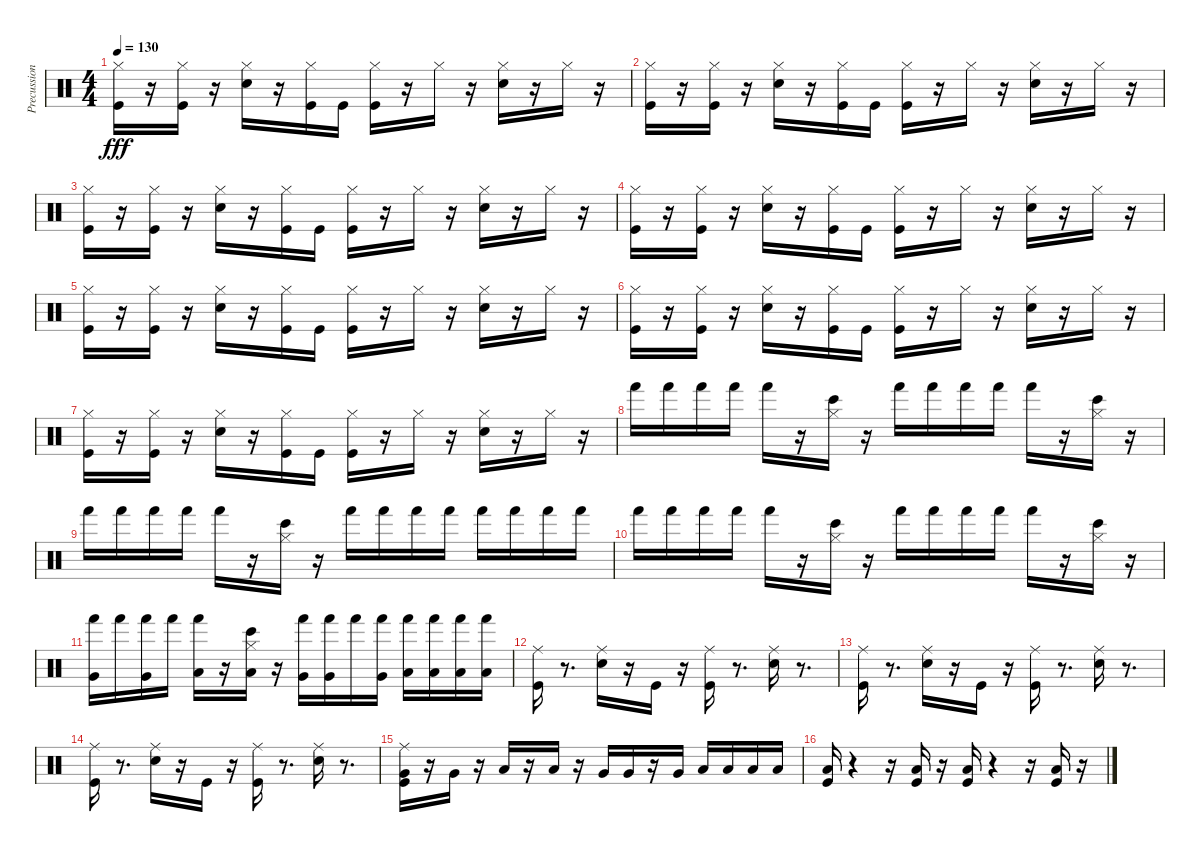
\track ("Precussion" "Precussion") {instrument percussion}
\staff {score}
\articulation defaults
\ts (4 4)
\tempo 130
\clef neutral
\ks c
("Kick (hit)" "Hi-Hat (closed)").16{dy fff} r.16 ("Kick (hit)" "Hi-Hat (closed)").16 r.16 ("Snare (hit) 2" "Hi-Hat (closed)").16 r.16 ("Kick (hit)" "Hi-Hat (closed)").16 "Kick (hit)".16 ("Kick (hit)" "Hi-Hat (closed)").16 r.16 "Hi-Hat (closed)".16 r.16 ("Snare (hit) 2" "Hi-Hat (closed)").16 r.16 "Hi-Hat (closed)".16 r.16 |
("Kick (hit)" "Hi-Hat (closed)").16 r.16 ("Kick (hit)" "Hi-Hat (closed)").16 r.16 ("Snare (hit) 2" "Hi-Hat (closed)").16 r.16 ("Kick (hit)" "Hi-Hat (closed)").16 "Kick (hit)".16 ("Kick (hit)" "Hi-Hat (closed)").16 r.16 "Hi-Hat (closed)".16 r.16 ("Snare (hit) 2" "Hi-Hat (closed)").16 r.16 "Hi-Hat (closed)".16 r.16 |
("Kick (hit)" "Hi-Hat (closed)").16 r.16 ("Kick (hit)" "Hi-Hat (closed)").16 r.16 ("Snare (hit) 2" "Hi-Hat (closed)").16 r.16 ("Kick (hit)" "Hi-Hat (closed)").16 "Kick (hit)".16 ("Kick (hit)" "Hi-Hat (closed)").16 r.16 "Hi-Hat (closed)".16 r.16 ("Snare (hit) 2" "Hi-Hat (closed)").16 r.16 "Hi-Hat (closed)".16 r.16 |
("Kick (hit)" "Hi-Hat (closed)").16 r.16 ("Kick (hit)" "Hi-Hat (closed)").16 r.16 ("Snare (hit) 2" "Hi-Hat (closed)").16 r.16 ("Kick (hit)" "Hi-Hat (closed)").16 "Kick (hit)".16 ("Kick (hit)" "Hi-Hat (closed)").16 r.16 "Hi-Hat (closed)".16 r.16 ("Snare (hit) 2" "Hi-Hat (closed)").16 r.16 "Hi-Hat (closed)".16 r.16 |
("Kick (hit)" "Hi-Hat (closed)").16 r.16 ("Kick (hit)" "Hi-Hat (closed)").16 r.16 ("Snare (hit) 2" "Hi-Hat (closed)").16 r.16 ("Kick (hit)" "Hi-Hat (closed)").16 "Kick (hit)".16 ("Kick (hit)" "Hi-Hat (closed)").16 r.16 "Hi-Hat (closed)".16 r.16 ("Snare (hit) 2" "Hi-Hat (closed)").16 r.16 "Hi-Hat (closed)".16 r.16 |
("Kick (hit)" "Hi-Hat (closed)").16 r.16 ("Kick (hit)" "Hi-Hat (closed)").16 r.16 ("Snare (hit) 2" "Hi-Hat (closed)").16 r.16 ("Kick (hit)" "Hi-Hat (closed)").16 "Kick (hit)".16 ("Kick (hit)" "Hi-Hat (closed)").16 r.16 "Hi-Hat (closed)".16 r.16 ("Snare (hit) 2" "Hi-Hat (closed)").16 r.16 "Hi-Hat (closed)".16 r.16 |
("Kick (hit)" "Hi-Hat (closed)").16 r.16 ("Kick (hit)" "Hi-Hat (closed)").16 r.16 ("Snare (hit) 2" "Hi-Hat (closed)").16 r.16 ("Kick (hit)" "Hi-Hat (closed)").16 "Kick (hit)".16 ("Kick (hit)" "Hi-Hat (closed)").16 r.16 "Hi-Hat (closed)".16 r.16 ("Snare (hit) 2" "Hi-Hat (closed)").16 r.16 "Hi-Hat (closed)".16 r.16 |
"Hand (hit)".16 "Hand (hit)".16 "Hand (hit)".16 "Hand (hit)".16 "Hand (hit)".16 r.16 ("Bongo High (hit)" "Hi-Hat (closed)").16 r.16 "Hand (hit)".16 "Hand (hit)".16 "Hand (hit)".16 "Hand (hit)".16 "Hand (hit)".16 r.16 ("Bongo High (hit)" "Hi-Hat (closed)").16 r.16 |
"Hand (hit)".16 "Hand (hit)".16 "Hand (hit)".16 "Hand (hit)".16 "Hand (hit)".16 r.16 ("Bongo High (hit)" "Hi-Hat (closed)").16 r.16 "Hand (hit)".16 "Hand (hit)".16 "Hand (hit)".16 "Hand (hit)".16 "Hand (hit)".16 "Hand (hit)".16 "Hand (hit)".16 "Hand (hit)".16 |
"Hand (hit)".16 "Hand (hit)".16 "Hand (hit)".16 "Hand (hit)".16 "Hand (hit)".16 r.16 ("Bongo High (hit)" "Hi-Hat (closed)").16 r.16 "Hand (hit)".16 "Hand (hit)".16 "Hand (hit)".16 "Hand (hit)".16 "Hand (hit)".16 r.16 ("Bongo High (hit)" "Hi-Hat (closed)").16 r.16 |
("Hand (hit)" "Very Low Tom (hit)").16 "Hand (hit)".16 ("Hand (hit)" "Very Low Tom (hit)").16 "Hand (hit)".16 ("Hand (hit)" "Low Floor Tom (hit)").16 r.16 ("Bongo High (hit)" "Hi-Hat (closed)" "Low Floor Tom (hit)").16 r.16 ("Hand (hit)" "Very Low Tom (hit)").16 ("Hand (hit)" "Very Low Tom (hit)").16 "Hand (hit)".16 ("Hand (hit)" "Very Low Tom (hit)").16 ("Hand (hit)" "Low Floor Tom (hit)").16 ("Hand (hit)" "Low Floor Tom (hit)").16 ("Hand (hit)" "Low Floor Tom (hit)").16 ("Hand (hit)" "Low Floor Tom (hit)").16 |
("Ride (middle)" "Kick (hit)").16 r.8{d} ("Ride (middle)" "Snare (hit) 2").16 r.16 "Kick (hit)".16 r.16 ("Ride (middle)" "Kick (hit)").16 r.8{d} ("Ride (middle)" "Snare (hit) 2").16 r.8{d} |
("Ride (middle)" "Kick (hit)").16 r.8{d} ("Ride (middle)" "Snare (hit) 2").16 r.16 "Kick (hit)".16 r.16 ("Ride (middle)" "Kick (hit)").16 r.8{d} ("Ride (middle)" "Snare (hit) 2").16 r.8{d} |
("Ride (middle)" "Kick (hit)").16 r.8{d} ("Ride (middle)" "Snare (hit) 2").16 r.16 "Kick (hit)".16 r.16 ("Ride (middle)" "Kick (hit)").16 r.8{d} ("Ride (middle)" "Snare (hit) 2").16 r.8{d} |
("Ride (middle)" "Kick (hit)" "Very Low Tom (hit)").16 r.16 "Very Low Tom (hit)".16 r.16 "Low Floor Tom (hit)".16 r.16 "Low Floor Tom (hit)".16 r.16 "Very Low Tom (hit)".16 "Very Low Tom (hit)".16 r.16 "Very Low Tom (hit)".16 "Low Floor Tom (hit)".16 "Low Floor Tom (hit)".16 "Low Floor Tom (hit)".16 "Low Floor Tom (hit)".16 |
("Kick (hit)" "Low Floor Tom (hit)").16 r.4 r.16 ("Kick (hit)" "Low Floor Tom (hit)").16 r.16 ("Kick (hit)" "Low Floor Tom (hit)").16 r.4 r.16 ("Kick (hit)" "Low Floor Tom (hit)").16 r.16
